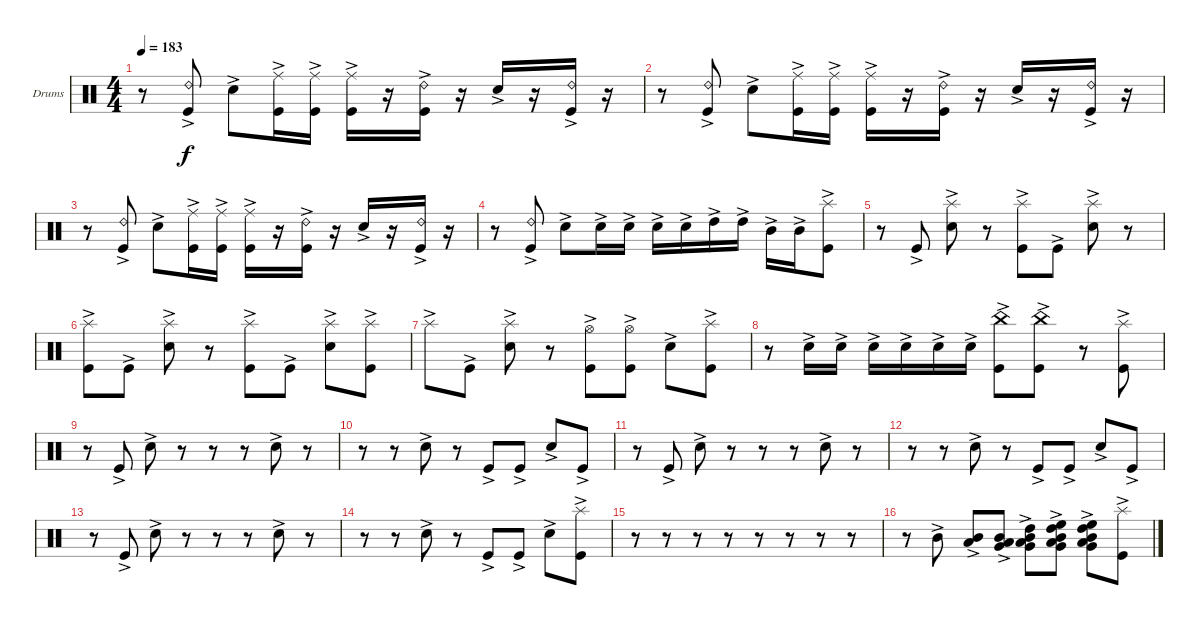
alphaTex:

\bracketExtendMode groupsimilarinstruments
\firstSystemTrackNameOrientation horizontal
\otherSystemsTrackNameOrientation horizontal
\track ("Drumkit" "Drums") {instrument percussion}
\staff {score}
\articulation defaults
\ts (4 4)
\tempo 183
\clef neutral
\ks c
r.8{dy f} ("Kick (hit)"{ac} "Ride (bell) 2"{ac}).8 "Snare (hit) 2"{ac}.8 ("Kick (hit)"{ac} "Ride (middle)"{ac}).16 ("Kick (hit)"{ac} "Ride (middle)"{ac}).16 ("Kick (hit)"{ac} "Ride (middle)"{ac}).16 r.16 ("Kick (hit)"{ac} "Ride (bell) 2"{ac}).16 r.16 "Snare (hit) 2"{ac}.16 r.16 ("Kick (hit)"{ac} "Ride (bell) 2"{ac}).16 r.16 |
r.8 ("Kick (hit)"{ac} "Ride (bell) 2"{ac}).8 "Snare (hit) 2"{ac}.8 ("Kick (hit)"{ac} "Ride (middle)"{ac}).16 ("Kick (hit)"{ac} "Ride (middle)"{ac}).16 ("Kick (hit)"{ac} "Ride (middle)"{ac}).16 r.16 ("Kick (hit)"{ac} "Ride (bell) 2"{ac}).16 r.16 "Snare (hit) 2"{ac}.16 r.16 ("Kick (hit)"{ac} "Ride (bell) 2"{ac}).16 r.16 |
r.8 ("Kick (hit)"{ac} "Ride (bell) 2"{ac}).8 "Snare (hit) 2"{ac}.8 ("Kick (hit)"{ac} "Ride (middle)"{ac}).16 ("Kick (hit)"{ac} "Ride (middle)"{ac}).16 ("Kick (hit)"{ac} "Ride (middle)"{ac}).16 r.16 ("Kick (hit)"{ac} "Ride (bell) 2"{ac}).16 r.16 "Snare (hit) 2"{ac}.16 r.16 ("Kick (hit)"{ac} "Ride (bell) 2"{ac}).16 r.16 |
r.8 ("Kick (hit)"{ac} "Ride (bell) 2"{ac}).8 "Snare (hit) 2"{ac}.8 "Snare (hit) 2"{ac}.16 "Snare (hit) 2"{ac}.16 "Snare (hit) 2"{ac}.16 "Snare (hit) 2"{ac}.16 "High Tom (hit)"{ac}.16 "High Tom (hit)"{ac}.16 "Mid Tom (hit)"{ac}.16 "Mid Tom (hit)"{ac}.16 ("Kick (hit)"{ac} "Splash (hit)"{ac}).8 |
r.8 "Kick (hit)"{ac}.8 ("Snare (hit) 2"{ac} "Splash (hit)"{ac}).8 r.8 ("Kick (hit)"{ac} "Splash (hit)"{ac}).8 "Kick (hit)"{ac}.8 ("Snare (hit) 2"{ac} "Splash (hit)"{ac}).8 r.8 |
("Kick (hit)"{ac} "Splash (hit)"{ac}).8 "Kick (hit)"{ac}.8 ("Snare (hit) 2"{ac} "Splash (hit)"{ac}).8 r.8 ("Kick (hit)"{ac} "Splash (hit)"{ac}).8 "Kick (hit)"{ac}.8 ("Snare (hit) 2"{ac} "Splash (hit)"{ac}).8 ("Kick (hit)"{ac} "Splash (hit)"{ac}).8 |
"Splash (hit)"{ac}.8 "Kick (hit)"{ac}.8 ("Snare (hit) 2"{ac} "Splash (hit)"{ac}).8 r.8 ("Kick (hit)"{ac} "Hi-Hat (open)"{ac}).8 ("Kick (hit)"{ac} "Hi-Hat (open)"{ac}).8 "Snare (hit) 2"{ac}.8 ("Kick (hit)"{ac} "Splash (hit)"{ac}).8 |
r.8 "Snare (hit) 2"{ac}.16 "Snare (hit) 2"{ac}.16 "Snare (hit) 2"{ac}.16 "Snare (hit) 2"{ac}.16 "Snare (hit) 2"{ac}.16 "Snare (hit) 2"{ac}.16 ("Kick (hit)"{ac} "China (hit)"{ac}).8 ("Kick (hit)"{ac} "China (hit)"{ac}).8 r.8 ("Kick (hit)"{ac} "Splash (hit)"{ac}).8 |
r.8 "Kick (hit)"{ac}.8 "Snare (hit) 2"{ac}.8 r.8 r.8 r.8 "Snare (hit) 2"{ac}.8 r.8 |
r.8 r.8 "Snare (hit) 2"{ac}.8 r.8 "Kick (hit)"{ac}.8 "Kick (hit)"{ac}.8 "Snare (hit) 2"{ac}.8 "Kick (hit)"{ac}.8 |
r.8 "Kick (hit)"{ac}.8 "Snare (hit) 2"{ac}.8 r.8 r.8 r.8 "Snare (hit) 2"{ac}.8 r.8 |
r.8 r.8 "Snare (hit) 2"{ac}.8 r.8 "Kick (hit)"{ac}.8 "Kick (hit)"{ac}.8 "Snare (hit) 2"{ac}.8 "Kick (hit)"{ac}.8 |
r.8 "Kick (hit)"{ac}.8 "Snare (hit) 2"{ac}.8 r.8 r.8 r.8 "Snare (hit) 2"{ac}.8 r.8 |
r.8 r.8 "Snare (hit) 2"{ac}.8 r.8 "Kick (hit)"{ac}.8 "Kick (hit)"{ac}.8 "Snare (hit) 2"{ac}.8 ("Kick (hit)"{ac} "Splash (hit)"{ac}).8 |
r.8 r.8 r.8 r.8 r.8 r.8 r.8 r.8 |
r.8 "Mid Tom (hit)"{ac}.8 ("Mid Tom (hit)"{ac} "Low Tom (hit)"{ac}).8 ("Mid Tom (hit)"{ac} "Low Tom (hit)"{ac} "Very Low Tom (hit)"{ac}).8 ("Mid Tom (hit)"{ac} "Low Tom (hit)"{ac} "Very Low Tom (hit)"{ac} "High Tom (hit)"{ac}).8 ("Mid Tom (hit)"{ac} "Low Tom (hit)"{ac} "Very Low Tom (hit)"{ac} "High Tom (hit)"{ac} "High Floor Tom (hit)"{ac}).8 ("Mid Tom (hit)"{ac} "Low Tom (hit)"{ac} "Very Low Tom (hit)"{ac} "High Tom (hit)"{ac} "High Floor Tom (hit)"{ac}).8 ("Kick (hit)"{ac} "Splash (hit)"{ac}).8
